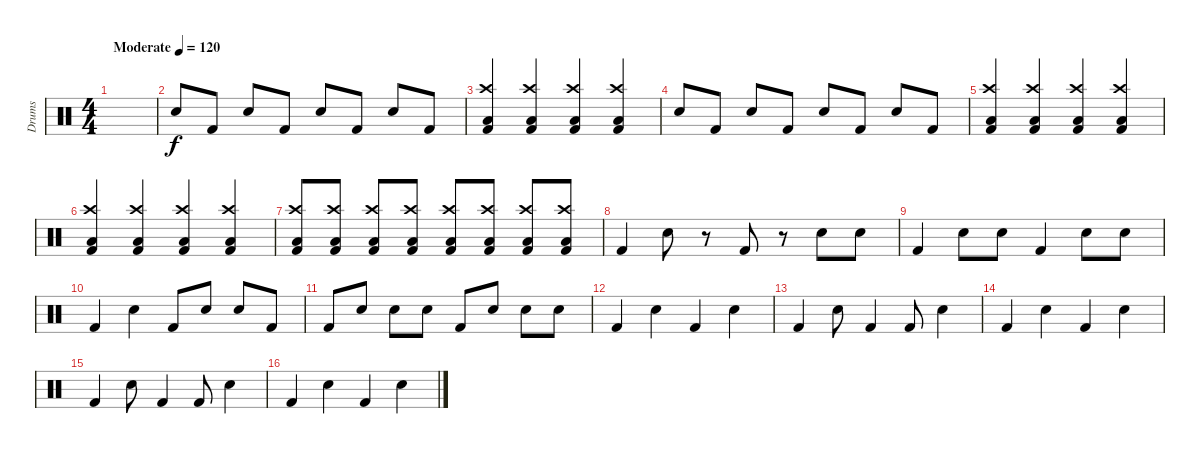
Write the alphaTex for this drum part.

\track ("Drums" "Drums") {instrument percussion}
\staff {score}
\articulation defaults
\ts (4 4)
\tempo (120 "Moderate")
\clef neutral
\ks c
|
"Snare (hit) 2".8 "Kick (hit) 2".8 "Snare (hit) 2".8 "Kick (hit) 2".8 "Snare (hit) 2".8 "Kick (hit) 2".8 "Snare (hit) 2".8 "Kick (hit) 2".8 |
("Crash high (hit)" "Kick (hit) 2" "Low Tom (hit)").4 ("Crash high (hit)" "Kick (hit) 2" "Low Tom (hit)").4 ("Crash high (hit)" "Kick (hit) 2" "Low Tom (hit)").4 ("Crash high (hit)" "Kick (hit) 2" "Low Tom (hit)").4 |
"Snare (hit) 2".8 "Kick (hit) 2".8 "Snare (hit) 2".8 "Kick (hit) 2".8 "Snare (hit) 2".8 "Kick (hit) 2".8 "Snare (hit) 2".8 "Kick (hit) 2".8 |
("Crash high (hit)" "Kick (hit) 2" "Low Tom (hit)").4 ("Crash high (hit)" "Kick (hit) 2" "Low Tom (hit)").4 ("Crash high (hit)" "Kick (hit) 2" "Low Tom (hit)").4 ("Crash high (hit)" "Kick (hit) 2" "Low Tom (hit)").4 |
("Crash high (hit)" "Kick (hit) 2" "Low Tom (hit)").4 ("Crash high (hit)" "Kick (hit) 2" "Low Tom (hit)").4 ("Crash high (hit)" "Kick (hit) 2" "Low Tom (hit)").4 ("Crash high (hit)" "Kick (hit) 2" "Low Tom (hit)").4 |
("Crash high (hit)" "Kick (hit) 2" "Low Tom (hit)").8 ("Crash high (hit)" "Kick (hit) 2" "Low Tom (hit)").8 ("Crash high (hit)" "Kick (hit) 2" "Low Tom (hit)").8 ("Crash high (hit)" "Kick (hit) 2" "Low Tom (hit)").8 ("Crash high (hit)" "Kick (hit) 2" "Low Tom (hit)").8 ("Crash high (hit)" "Kick (hit) 2" "Low Tom (hit)").8 ("Crash high (hit)" "Kick (hit) 2" "Low Tom (hit)").8 ("Crash high (hit)" "Kick (hit) 2" "Low Tom (hit)").8 |
"Kick (hit) 2".4 "Snare (hit) 2".8 r.8 "Kick (hit) 2".8 r.8 "Snare (hit) 2".8 "Snare (hit) 2".8 |
"Kick (hit) 2".4 "Snare (hit) 2".8 "Snare (hit) 2".8 "Kick (hit) 2".4 "Snare (hit) 2".8 "Snare (hit) 2".8 |
"Kick (hit) 2".4 "Snare (hit) 2".4 "Kick (hit) 2".8 "Snare (hit) 2".8 "Snare (hit) 2".8 "Kick (hit) 2".8 |
"Kick (hit) 2".8 "Snare (hit) 2".8 "Snare (hit) 2".8 "Snare (hit) 2".8 "Kick (hit) 2".8 "Snare (hit) 2".8 "Snare (hit) 2".8 "Snare (hit) 2".8 |
"Kick (hit) 2".4 "Snare (hit) 2".4 "Kick (hit) 2".4 "Snare (hit) 2".4 |
"Kick (hit) 2".4 "Snare (hit) 2".8 "Kick (hit) 2".4 "Kick (hit) 2".8 "Snare (hit) 2".4 |
"Kick (hit) 2".4 "Snare (hit) 2".4 "Kick (hit) 2".4 "Snare (hit) 2".4 |
"Kick (hit) 2".4 "Snare (hit) 2".8 "Kick (hit) 2".4 "Kick (hit) 2".8 "Snare (hit) 2".4 |
"Kick (hit) 2".4 "Snare (hit) 2".4 "Kick (hit) 2".4 "Snare (hit) 2".4
